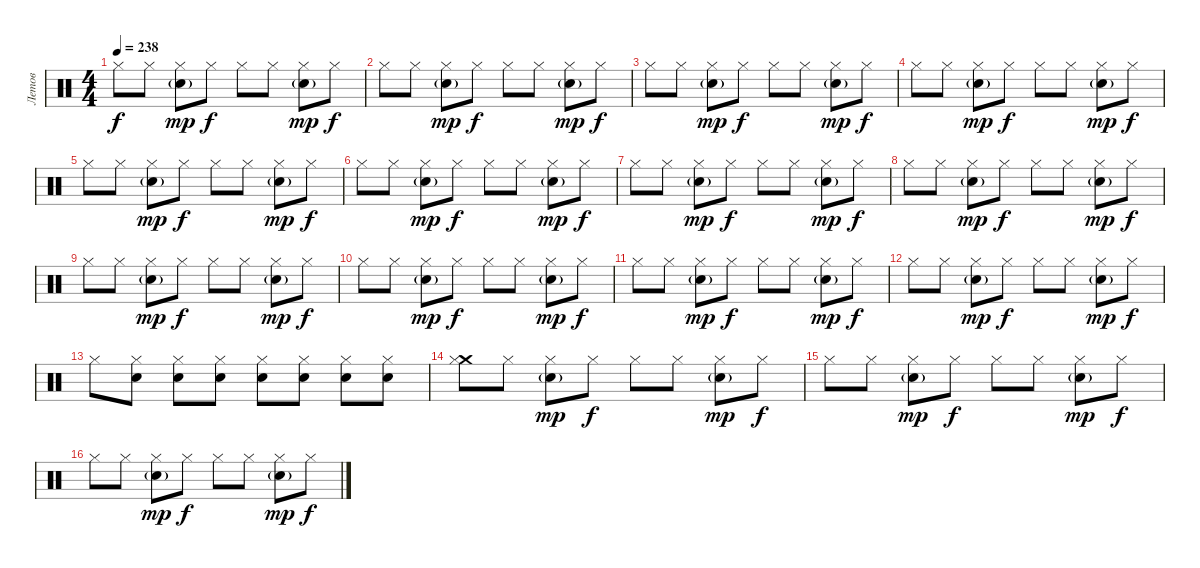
\track ("Летов" "Летов") {instrument percussion}
\staff {score}
\articulation defaults
\ts (4 4)
\tempo 238
\clef neutral
\ks c "Hi-Hat (closed)".8{dy f} "Hi-Hat (closed)".8
("Hi-Hat (closed)" "Snare (hit) 2"{g}).8{dy mp} "Hi-Hat (closed)".8{dy f} "Hi-Hat (closed)".8 "Hi-Hat (closed)".8 ("Hi-Hat (closed)" "Snare (hit) 2"{g}).8{dy mp} "Hi-Hat (closed)".8{dy f} |
"Hi-Hat (closed)".8 "Hi-Hat (closed)".8 ("Hi-Hat (closed)" "Snare (hit) 2"{g}).8{dy mp} "Hi-Hat (closed)".8{dy f} "Hi-Hat (closed)".8 "Hi-Hat (closed)".8 ("Hi-Hat (closed)" "Snare (hit) 2"{g}).8{dy mp} "Hi-Hat (closed)".8{dy f} |
"Hi-Hat (closed)".8 "Hi-Hat (closed)".8 ("Hi-Hat (closed)" "Snare (hit) 2"{g}).8{dy mp} "Hi-Hat (closed)".8{dy f} "Hi-Hat (closed)".8 "Hi-Hat (closed)".8 ("Hi-Hat (closed)" "Snare (hit) 2"{g}).8{dy mp} "Hi-Hat (closed)".8{dy f} |
"Hi-Hat (closed)".8 "Hi-Hat (closed)".8 ("Hi-Hat (closed)" "Snare (hit) 2"{g}).8{dy mp} "Hi-Hat (closed)".8{dy f} "Hi-Hat (closed)".8 "Hi-Hat (closed)".8 ("Hi-Hat (closed)" "Snare (hit) 2"{g}).8{dy mp} "Hi-Hat (closed)".8{dy f} |
"Hi-Hat (closed)".8 "Hi-Hat (closed)".8 ("Hi-Hat (closed)" "Snare (hit) 2"{g}).8{dy mp} "Hi-Hat (closed)".8{dy f} "Hi-Hat (closed)".8 "Hi-Hat (closed)".8 ("Hi-Hat (closed)" "Snare (hit) 2"{g}).8{dy mp} "Hi-Hat (closed)".8{dy f} |
"Hi-Hat (closed)".8 "Hi-Hat (closed)".8 ("Hi-Hat (closed)" "Snare (hit) 2"{g}).8{dy mp} "Hi-Hat (closed)".8{dy f} "Hi-Hat (closed)".8 "Hi-Hat (closed)".8 ("Hi-Hat (closed)" "Snare (hit) 2"{g}).8{dy mp} "Hi-Hat (closed)".8{dy f} |
"Hi-Hat (closed)".8 "Hi-Hat (closed)".8 ("Hi-Hat (closed)" "Snare (hit) 2"{g}).8{dy mp} "Hi-Hat (closed)".8{dy f} "Hi-Hat (closed)".8 "Hi-Hat (closed)".8 ("Hi-Hat (closed)" "Snare (hit) 2"{g}).8{dy mp} "Hi-Hat (closed)".8{dy f} |
"Hi-Hat (closed)".8 "Hi-Hat (closed)".8 ("Hi-Hat (closed)" "Snare (hit) 2"{g}).8{dy mp} "Hi-Hat (closed)".8{dy f} "Hi-Hat (closed)".8 "Hi-Hat (closed)".8 ("Hi-Hat (closed)" "Snare (hit) 2"{g}).8{dy mp} "Hi-Hat (closed)".8{dy f} |
"Hi-Hat (closed)".8 "Hi-Hat (closed)".8 ("Hi-Hat (closed)" "Snare (hit) 2"{g}).8{dy mp} "Hi-Hat (closed)".8{dy f} "Hi-Hat (closed)".8 "Hi-Hat (closed)".8 ("Hi-Hat (closed)" "Snare (hit) 2"{g}).8{dy mp} "Hi-Hat (closed)".8{dy f} |
"Hi-Hat (closed)".8 "Hi-Hat (closed)".8 ("Hi-Hat (closed)" "Snare (hit) 2"{g}).8{dy mp} "Hi-Hat (closed)".8{dy f} "Hi-Hat (closed)".8 "Hi-Hat (closed)".8 ("Hi-Hat (closed)" "Snare (hit) 2"{g}).8{dy mp} "Hi-Hat (closed)".8{dy f} |
"Hi-Hat (closed)".8 "Hi-Hat (closed)".8 ("Hi-Hat (closed)" "Snare (hit) 2"{g}).8{dy mp} "Hi-Hat (closed)".8{dy f} "Hi-Hat (closed)".8 "Hi-Hat (closed)".8 ("Hi-Hat (closed)" "Snare (hit) 2"{g}).8{dy mp} "Hi-Hat (closed)".8{dy f} |
"Hi-Hat (closed)".8 "Hi-Hat (closed)".8 ("Hi-Hat (closed)" "Snare (hit) 2"{g}).8{dy mp} "Hi-Hat (closed)".8{dy f} "Hi-Hat (closed)".8 "Hi-Hat (closed)".8 ("Hi-Hat (closed)" "Snare (hit) 2"{g}).8{dy mp} "Hi-Hat (closed)".8{dy f} |
"Hi-Hat (closed)".8 ("Hi-Hat (closed)" "Snare (hit) 2").8 ("Hi-Hat (closed)" "Snare (hit) 2").8 ("Hi-Hat (closed)" "Snare (hit) 2").8 ("Hi-Hat (closed)" "Snare (hit) 2").8 ("Hi-Hat (closed)" "Snare (hit) 2").8 ("Hi-Hat (closed)" "Snare (hit) 2").8 ("Hi-Hat (closed)" "Snare (hit) 2").8 |
("Crash medium (hit)" "Hi-Hat (closed)").8 "Hi-Hat (closed)".8 ("Hi-Hat (closed)" "Snare (hit) 2"{g}).8{dy mp} "Hi-Hat (closed)".8{dy f} "Hi-Hat (closed)".8 "Hi-Hat (closed)".8 ("Hi-Hat (closed)" "Snare (hit) 2"{g}).8{dy mp} "Hi-Hat (closed)".8{dy f} |
"Hi-Hat (closed)".8 "Hi-Hat (closed)".8 ("Hi-Hat (closed)" "Snare (hit) 2"{g}).8{dy mp} "Hi-Hat (closed)".8{dy f} "Hi-Hat (closed)".8 "Hi-Hat (closed)".8 ("Hi-Hat (closed)" "Snare (hit) 2"{g}).8{dy mp} "Hi-Hat (closed)".8{dy f} |
"Hi-Hat (closed)".8 "Hi-Hat (closed)".8 ("Hi-Hat (closed)" "Snare (hit) 2"{g}).8{dy mp} "Hi-Hat (closed)".8{dy f} "Hi-Hat (closed)".8 "Hi-Hat (closed)".8 ("Hi-Hat (closed)" "Snare (hit) 2"{g}).8{dy mp} "Hi-Hat (closed)".8{dy f}
